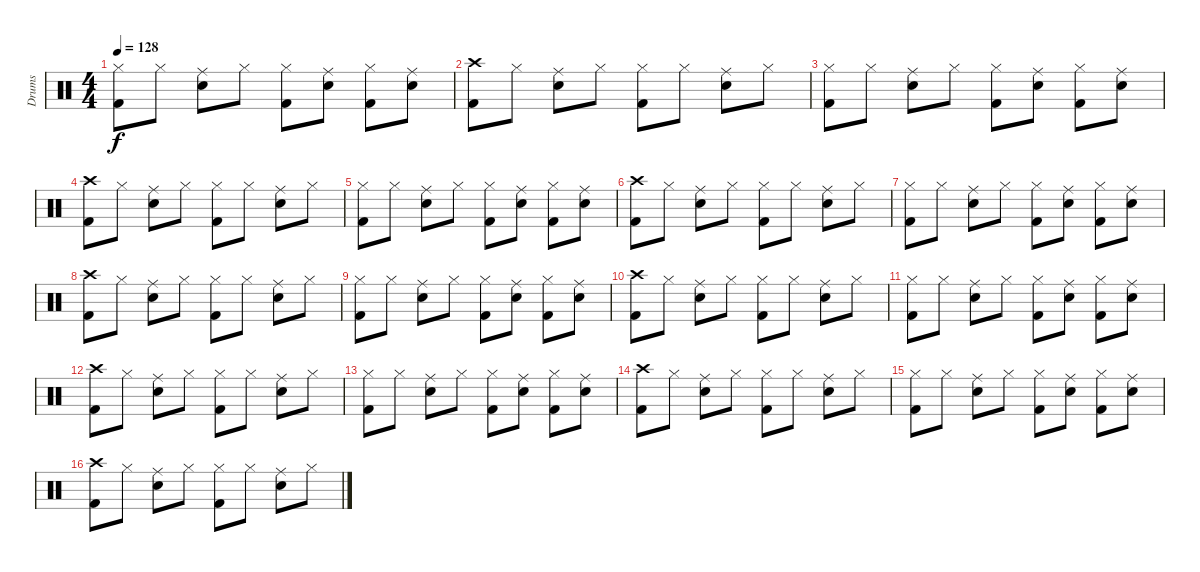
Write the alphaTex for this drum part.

\track ("Drums" "Drums") {instrument percussion}
\staff {score}
\articulation defaults
\ts (4 4)
\tempo 128
\clef neutral
\ks c
("Hi-Hat (closed)" "Kick (hit) 2").8{dy f} "Hi-Hat (closed)".8 ("Ride (middle)" "Snare (hit) 2").8 "Hi-Hat (closed)".8 ("Hi-Hat (closed)" "Kick (hit) 2").8 ("Ride (middle)" "Snare (hit) 2").8 ("Hi-Hat (closed)" "Kick (hit) 2").8 ("Ride (middle)" "Snare (hit) 2").8 |
("Crash high (hit)" "Kick (hit) 2").8 "Hi-Hat (closed)".8 ("Ride (middle)" "Snare (hit) 2").8 "Hi-Hat (closed)".8 ("Hi-Hat (closed)" "Kick (hit) 2").8 "Hi-Hat (closed)".8 ("Ride (middle)" "Snare (hit) 2").8 "Hi-Hat (closed)".8 |
("Hi-Hat (closed)" "Kick (hit) 2").8 "Hi-Hat (closed)".8 ("Ride (middle)" "Snare (hit) 2").8 "Hi-Hat (closed)".8 ("Hi-Hat (closed)" "Kick (hit) 2").8 ("Ride (middle)" "Snare (hit) 2").8 ("Hi-Hat (closed)" "Kick (hit) 2").8 ("Ride (middle)" "Snare (hit) 2").8 |
("Crash high (hit)" "Kick (hit) 2").8 "Hi-Hat (closed)".8 ("Ride (middle)" "Snare (hit) 2").8 "Hi-Hat (closed)".8 ("Hi-Hat (closed)" "Kick (hit) 2").8 "Hi-Hat (closed)".8 ("Ride (middle)" "Snare (hit) 2").8 "Hi-Hat (closed)".8 |
("Hi-Hat (closed)" "Kick (hit) 2").8 "Hi-Hat (closed)".8 ("Ride (middle)" "Snare (hit) 2").8 "Hi-Hat (closed)".8 ("Hi-Hat (closed)" "Kick (hit) 2").8 ("Ride (middle)" "Snare (hit) 2").8 ("Hi-Hat (closed)" "Kick (hit) 2").8 ("Ride (middle)" "Snare (hit) 2").8 |
("Crash high (hit)" "Kick (hit) 2").8 "Hi-Hat (closed)".8 ("Ride (middle)" "Snare (hit) 2").8 "Hi-Hat (closed)".8 ("Hi-Hat (closed)" "Kick (hit) 2").8 "Hi-Hat (closed)".8 ("Ride (middle)" "Snare (hit) 2").8 "Hi-Hat (closed)".8 |
("Hi-Hat (closed)" "Kick (hit) 2").8 "Hi-Hat (closed)".8 ("Ride (middle)" "Snare (hit) 2").8 "Hi-Hat (closed)".8 ("Hi-Hat (closed)" "Kick (hit) 2").8 ("Ride (middle)" "Snare (hit) 2").8 ("Hi-Hat (closed)" "Kick (hit) 2").8 ("Ride (middle)" "Snare (hit) 2").8 |
("Crash high (hit)" "Kick (hit) 2").8 "Hi-Hat (closed)".8 ("Ride (middle)" "Snare (hit) 2").8 "Hi-Hat (closed)".8 ("Hi-Hat (closed)" "Kick (hit) 2").8 "Hi-Hat (closed)".8 ("Ride (middle)" "Snare (hit) 2").8 "Hi-Hat (closed)".8 |
("Hi-Hat (closed)" "Kick (hit) 2").8 "Hi-Hat (closed)".8 ("Ride (middle)" "Snare (hit) 2").8 "Hi-Hat (closed)".8 ("Hi-Hat (closed)" "Kick (hit) 2").8 ("Ride (middle)" "Snare (hit) 2").8 ("Hi-Hat (closed)" "Kick (hit) 2").8 ("Ride (middle)" "Snare (hit) 2").8 |
("Crash high (hit)" "Kick (hit) 2").8 "Hi-Hat (closed)".8 ("Ride (middle)" "Snare (hit) 2").8 "Hi-Hat (closed)".8 ("Hi-Hat (closed)" "Kick (hit) 2").8 "Hi-Hat (closed)".8 ("Ride (middle)" "Snare (hit) 2").8 "Hi-Hat (closed)".8 |
("Hi-Hat (closed)" "Kick (hit) 2").8 "Hi-Hat (closed)".8 ("Ride (middle)" "Snare (hit) 2").8 "Hi-Hat (closed)".8 ("Hi-Hat (closed)" "Kick (hit) 2").8 ("Ride (middle)" "Snare (hit) 2").8 ("Hi-Hat (closed)" "Kick (hit) 2").8 ("Ride (middle)" "Snare (hit) 2").8 |
("Crash high (hit)" "Kick (hit) 2").8 "Hi-Hat (closed)".8 ("Ride (middle)" "Snare (hit) 2").8 "Hi-Hat (closed)".8 ("Hi-Hat (closed)" "Kick (hit) 2").8 "Hi-Hat (closed)".8 ("Ride (middle)" "Snare (hit) 2").8 "Hi-Hat (closed)".8 |
("Hi-Hat (closed)" "Kick (hit) 2").8 "Hi-Hat (closed)".8 ("Ride (middle)" "Snare (hit) 2").8 "Hi-Hat (closed)".8 ("Hi-Hat (closed)" "Kick (hit) 2").8 ("Ride (middle)" "Snare (hit) 2").8 ("Hi-Hat (closed)" "Kick (hit) 2").8 ("Ride (middle)" "Snare (hit) 2").8 |
("Crash high (hit)" "Kick (hit) 2").8 "Hi-Hat (closed)".8 ("Ride (middle)" "Snare (hit) 2").8 "Hi-Hat (closed)".8 ("Hi-Hat (closed)" "Kick (hit) 2").8 "Hi-Hat (closed)".8 ("Ride (middle)" "Snare (hit) 2").8 "Hi-Hat (closed)".8 |
("Hi-Hat (closed)" "Kick (hit) 2").8 "Hi-Hat (closed)".8 ("Ride (middle)" "Snare (hit) 2").8 "Hi-Hat (closed)".8 ("Hi-Hat (closed)" "Kick (hit) 2").8 ("Ride (middle)" "Snare (hit) 2").8 ("Hi-Hat (closed)" "Kick (hit) 2").8 ("Ride (middle)" "Snare (hit) 2").8 |
("Crash high (hit)" "Kick (hit) 2").8 "Hi-Hat (closed)".8 ("Ride (middle)" "Snare (hit) 2").8 "Hi-Hat (closed)".8 ("Hi-Hat (closed)" "Kick (hit) 2").8 "Hi-Hat (closed)".8 ("Ride (middle)" "Snare (hit) 2").8 "Hi-Hat (closed)".8
